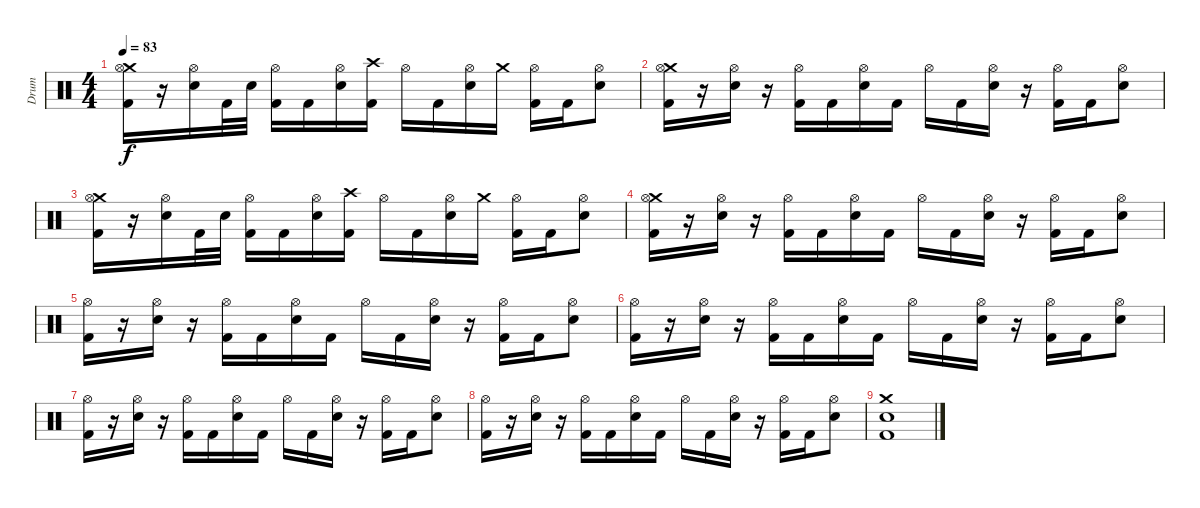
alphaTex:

\track ("Drum" "Drum") {instrument percussion}
\staff {score}
\articulation defaults
\ts (4 4)
\tempo 83
\clef neutral
\ks c
("Crash medium (hit)" "Hi-Hat (open)" "Kick (hit) 2").16{dy f} r.16 ("Hi-Hat (open)" "Snare (hit) 2").16 "Kick (hit) 2".32 "Snare (hit) 2".32 ("Hi-Hat (open)" "Kick (hit) 2").16 "Kick (hit) 2".16 ("Hi-Hat (open)" "Snare (hit) 2").16 ("Crash high (hit)" "Kick (hit) 2").16 "Hi-Hat (open)".16 "Kick (hit) 2".16 ("Hi-Hat (open)" "Snare (hit) 2").16 "Crash medium (hit)".16 ("Hi-Hat (open)" "Kick (hit) 2").16 "Kick (hit) 2".16 ("Hi-Hat (open)" "Snare (hit) 2").8 |
("Crash medium (hit)" "Hi-Hat (open)" "Kick (hit) 2").16 r.16 ("Hi-Hat (open)" "Snare (hit) 2").16 r.16 ("Hi-Hat (open)" "Kick (hit) 2").16 "Kick (hit) 2".16 ("Hi-Hat (open)" "Snare (hit) 2").16 "Kick (hit) 2".16 "Hi-Hat (open)".16 "Kick (hit) 2".16 ("Hi-Hat (open)" "Snare (hit) 2").16 r.16 ("Hi-Hat (open)" "Kick (hit) 2").16 "Kick (hit) 2".16 ("Hi-Hat (open)" "Snare (hit) 2").8 |
("Crash medium (hit)" "Hi-Hat (open)" "Kick (hit) 2").16 r.16 ("Hi-Hat (open)" "Snare (hit) 2").16 "Kick (hit) 2".32 "Snare (hit) 2".32 ("Hi-Hat (open)" "Kick (hit) 2").16 "Kick (hit) 2".16 ("Hi-Hat (open)" "Snare (hit) 2").16 ("Crash high (hit)" "Kick (hit) 2").16 "Hi-Hat (open)".16 "Kick (hit) 2".16 ("Hi-Hat (open)" "Snare (hit) 2").16 "Crash medium (hit)".16 ("Hi-Hat (open)" "Kick (hit) 2").16 "Kick (hit) 2".16 ("Hi-Hat (open)" "Snare (hit) 2").8 |
("Crash medium (hit)" "Hi-Hat (open)" "Kick (hit) 2").16 r.16 ("Hi-Hat (open)" "Snare (hit) 2").16 r.16 ("Hi-Hat (open)" "Kick (hit) 2").16 "Kick (hit) 2".16 ("Hi-Hat (open)" "Snare (hit) 2").16 "Kick (hit) 2".16 "Hi-Hat (open)".16 "Kick (hit) 2".16 ("Hi-Hat (open)" "Snare (hit) 2").16 r.16 ("Hi-Hat (open)" "Kick (hit) 2").16 "Kick (hit) 2".16 ("Hi-Hat (open)" "Snare (hit) 2").8 |
("Hi-Hat (open)" "Kick (hit) 2").16 r.16 ("Hi-Hat (open)" "Snare (hit) 2").16 r.16 ("Hi-Hat (open)" "Kick (hit) 2").16 "Kick (hit) 2".16 ("Hi-Hat (open)" "Snare (hit) 2").16 "Kick (hit) 2".16 "Hi-Hat (open)".16 "Kick (hit) 2".16 ("Hi-Hat (open)" "Snare (hit) 2").16 r.16 ("Hi-Hat (open)" "Kick (hit) 2").16 "Kick (hit) 2".16 ("Hi-Hat (open)" "Snare (hit) 2").8 |
("Hi-Hat (open)" "Kick (hit) 2").16 r.16 ("Hi-Hat (open)" "Snare (hit) 2").16 r.16 ("Hi-Hat (open)" "Kick (hit) 2").16 "Kick (hit) 2".16 ("Hi-Hat (open)" "Snare (hit) 2").16 "Kick (hit) 2".16 "Hi-Hat (open)".16 "Kick (hit) 2".16 ("Hi-Hat (open)" "Snare (hit) 2").16 r.16 ("Hi-Hat (open)" "Kick (hit) 2").16 "Kick (hit) 2".16 ("Hi-Hat (open)" "Snare (hit) 2").8 |
("Hi-Hat (open)" "Kick (hit) 2").16 r.16 ("Hi-Hat (open)" "Snare (hit) 2").16 r.16 ("Hi-Hat (open)" "Kick (hit) 2").16 "Kick (hit) 2".16 ("Hi-Hat (open)" "Snare (hit) 2").16 "Kick (hit) 2".16 "Hi-Hat (open)".16 "Kick (hit) 2".16 ("Hi-Hat (open)" "Snare (hit) 2").16 r.16 ("Hi-Hat (open)" "Kick (hit) 2").16 "Kick (hit) 2".16 ("Hi-Hat (open)" "Snare (hit) 2").8 |
("Hi-Hat (open)" "Kick (hit) 2").16 r.16 ("Hi-Hat (open)" "Snare (hit) 2").16 r.16 ("Hi-Hat (open)" "Kick (hit) 2").16 "Kick (hit) 2".16 ("Hi-Hat (open)" "Snare (hit) 2").16 "Kick (hit) 2".16 "Hi-Hat (open)".16 "Kick (hit) 2".16 ("Hi-Hat (open)" "Snare (hit) 2").16 r.16 ("Hi-Hat (open)" "Kick (hit) 2").16 "Kick (hit) 2".16 ("Hi-Hat (open)" "Snare (hit) 2").8 |
("Crash medium (hit)" "Snare (hit) 2" "Kick (hit) 2").1
